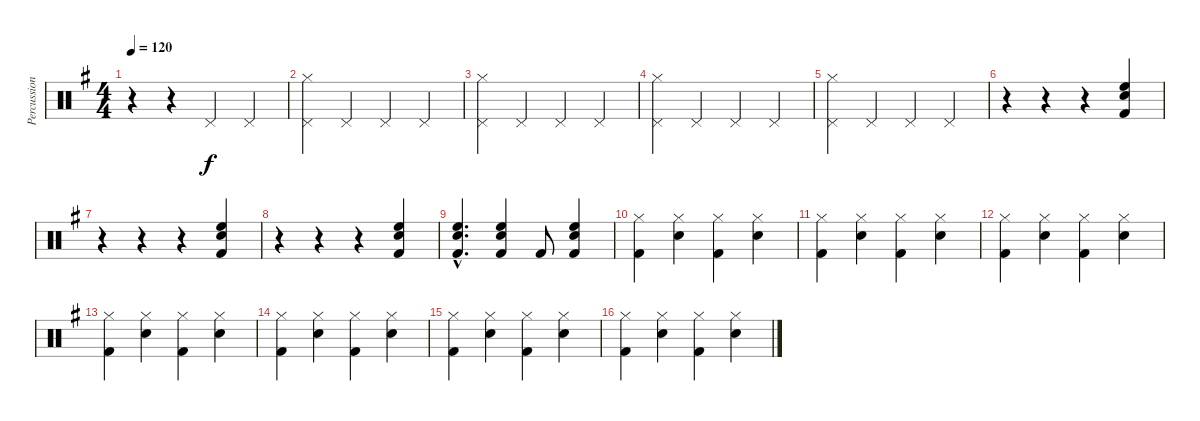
\track ("Percussion" "Percussion") {instrument percussion}
\staff {score}
\articulation defaults
\ts (4 4)
\tempo 120
\clef neutral
\ks eminor
r.4{dy f} r.4 "Pedal Hi-Hat (hit)".4 "Pedal Hi-Hat (hit)".4 |
("Hi-Hat (closed)" "Pedal Hi-Hat (hit)").4 "Pedal Hi-Hat (hit)".4 "Pedal Hi-Hat (hit)".4 "Pedal Hi-Hat (hit)".4 |
("Hi-Hat (closed)" "Pedal Hi-Hat (hit)").4 "Pedal Hi-Hat (hit)".4 "Pedal Hi-Hat (hit)".4 "Pedal Hi-Hat (hit)".4 |
("Hi-Hat (closed)" "Pedal Hi-Hat (hit)").4 "Pedal Hi-Hat (hit)".4 "Pedal Hi-Hat (hit)".4 "Pedal Hi-Hat (hit)".4 |
("Hi-Hat (closed)" "Pedal Hi-Hat (hit)").4 "Pedal Hi-Hat (hit)".4 "Pedal Hi-Hat (hit)".4 "Pedal Hi-Hat (hit)".4 |
r.4 r.4 r.4 ("Snare (hit) 2" "High Floor Tom (hit)" "Kick (hit) 2").4 |
r.4 r.4 r.4 ("Snare (hit) 2" "High Floor Tom (hit)" "Kick (hit) 2").4 |
r.4 r.4 r.4 ("Snare (hit) 2" "High Floor Tom (hit)" "Kick (hit) 2").4 |
("Snare (hit) 2"{hac} "High Floor Tom (hit)"{hac} "Kick (hit) 2"{hac}).4{d} ("Snare (hit) 2" "High Floor Tom (hit)" "Kick (hit) 2").4 "Kick (hit) 2".8 ("Snare (hit) 2" "High Floor Tom (hit)" "Kick (hit) 2").4 |
("Hi-Hat (closed)" "Kick (hit) 2").4 ("Hi-Hat (closed)" "Snare (hit) 2").4 ("Hi-Hat (closed)" "Kick (hit) 2").4 ("Hi-Hat (closed)" "Snare (hit) 2").4 |
("Hi-Hat (closed)" "Kick (hit) 2").4 ("Hi-Hat (closed)" "Snare (hit) 2").4 ("Hi-Hat (closed)" "Kick (hit) 2").4 ("Hi-Hat (closed)" "Snare (hit) 2").4 |
("Hi-Hat (closed)" "Kick (hit) 2").4 ("Hi-Hat (closed)" "Snare (hit) 2").4 ("Hi-Hat (closed)" "Kick (hit) 2").4 ("Hi-Hat (closed)" "Snare (hit) 2").4 |
("Hi-Hat (closed)" "Kick (hit) 2").4 ("Hi-Hat (closed)" "Snare (hit) 2").4 ("Hi-Hat (closed)" "Kick (hit) 2").4 ("Hi-Hat (closed)" "Snare (hit) 2").4 |
("Hi-Hat (closed)" "Kick (hit) 2").4 ("Hi-Hat (closed)" "Snare (hit) 2").4 ("Hi-Hat (closed)" "Kick (hit) 2").4 ("Hi-Hat (closed)" "Snare (hit) 2").4 |
("Hi-Hat (closed)" "Kick (hit) 2").4 ("Hi-Hat (closed)" "Snare (hit) 2").4 ("Hi-Hat (closed)" "Kick (hit) 2").4 ("Hi-Hat (closed)" "Snare (hit) 2").4 |
("Hi-Hat (closed)" "Kick (hit) 2").4 ("Hi-Hat (closed)" "Snare (hit) 2").4 ("Hi-Hat (closed)" "Kick (hit) 2").4 ("Hi-Hat (closed)" "Snare (hit) 2").4
